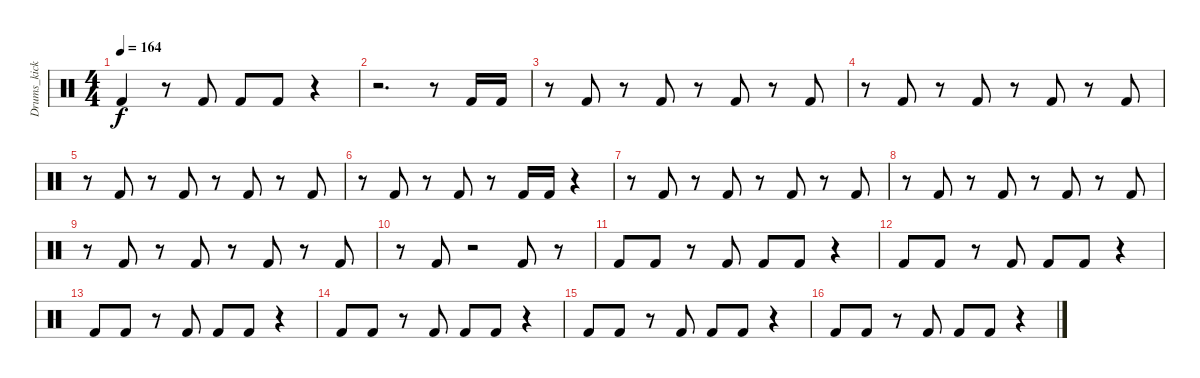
\track ("Drums_kick" "Drums_kick") {instrument percussion}
\staff {score}
\articulation defaults
\ts (4 4)
\tempo 164
\clef neutral
\ks c "Kick (hit) 2".4{dy f}
r.8 "Kick (hit) 2".8 "Kick (hit) 2".8 "Kick (hit) 2".8 r.4 |
r.2{d} r.8 "Kick (hit) 2".16 "Kick (hit) 2".16 |
r.8 "Kick (hit) 2".8 r.8 "Kick (hit) 2".8 r.8 "Kick (hit) 2".8 r.8 "Kick (hit) 2".8 |
r.8 "Kick (hit) 2".8 r.8 "Kick (hit) 2".8 r.8 "Kick (hit) 2".8 r.8 "Kick (hit) 2".8 |
r.8 "Kick (hit) 2".8 r.8 "Kick (hit) 2".8 r.8 "Kick (hit) 2".8 r.8 "Kick (hit) 2".8 |
r.8 "Kick (hit) 2".8 r.8 "Kick (hit) 2".8 r.8 "Kick (hit) 2".16 "Kick (hit) 2".16 r.4 |
r.8 "Kick (hit) 2".8 r.8 "Kick (hit) 2".8 r.8 "Kick (hit) 2".8 r.8 "Kick (hit) 2".8 |
r.8 "Kick (hit) 2".8 r.8 "Kick (hit) 2".8 r.8 "Kick (hit) 2".8 r.8 "Kick (hit) 2".8 |
r.8 "Kick (hit) 2".8 r.8 "Kick (hit) 2".8 r.8 "Kick (hit) 2".8 r.8 "Kick (hit) 2".8 |
r.8 "Kick (hit) 2".8 r.2 "Kick (hit) 2".8 r.8 |
"Kick (hit) 2".8 "Kick (hit) 2".8 r.8 "Kick (hit) 2".8 "Kick (hit) 2".8 "Kick (hit) 2".8 r.4 |
"Kick (hit) 2".8 "Kick (hit) 2".8 r.8 "Kick (hit) 2".8 "Kick (hit) 2".8 "Kick (hit) 2".8 r.4 |
"Kick (hit) 2".8 "Kick (hit) 2".8 r.8 "Kick (hit) 2".8 "Kick (hit) 2".8 "Kick (hit) 2".8 r.4 |
"Kick (hit) 2".8 "Kick (hit) 2".8 r.8 "Kick (hit) 2".8 "Kick (hit) 2".8 "Kick (hit) 2".8 r.4 |
"Kick (hit) 2".8 "Kick (hit) 2".8 r.8 "Kick (hit) 2".8 "Kick (hit) 2".8 "Kick (hit) 2".8 r.4 |
"Kick (hit) 2".8 "Kick (hit) 2".8 r.8 "Kick (hit) 2".8 "Kick (hit) 2".8 "Kick (hit) 2".8 r.4
